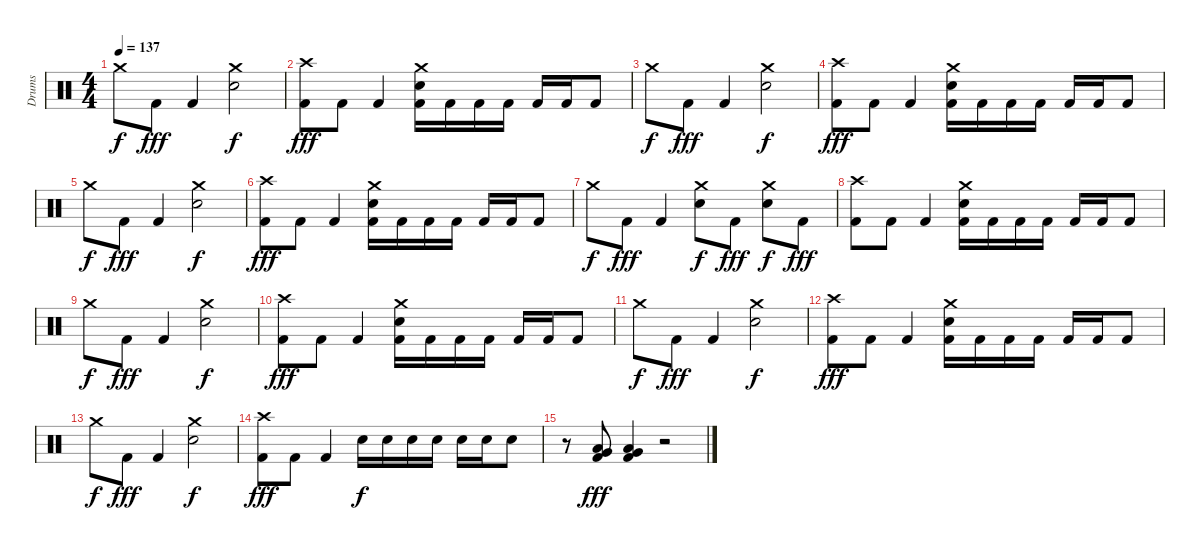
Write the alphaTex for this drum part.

\track ("Drums" "Drums") {instrument percussion}
\staff {score}
\articulation defaults
\ts (4 4)
\tempo 137
\clef neutral
\ks c "Crash medium (hit)".8{dy f} "Kick (hit) 2".8{dy fff} "Kick (hit) 2".4
("Crash medium (hit)" "Snare (hit) 2").2{dy f} |
("Crash high (hit)" "Kick (hit) 2").8{dy fff} "Kick (hit) 2".8 "Kick (hit) 2".4 ("Crash medium (hit)" "Snare (hit) 2" "Kick (hit) 2").16 "Kick (hit) 2".16 "Kick (hit) 2".16 "Kick (hit) 2".16 "Kick (hit) 2".16 "Kick (hit) 2".16 "Kick (hit) 2".8 |
"Crash medium (hit)".8{dy f} "Kick (hit) 2".8{dy fff} "Kick (hit) 2".4 ("Crash medium (hit)" "Snare (hit) 2").2{dy f} |
("Crash high (hit)" "Kick (hit) 2").8{dy fff} "Kick (hit) 2".8 "Kick (hit) 2".4 ("Crash medium (hit)" "Snare (hit) 2" "Kick (hit) 2").16 "Kick (hit) 2".16 "Kick (hit) 2".16 "Kick (hit) 2".16 "Kick (hit) 2".16 "Kick (hit) 2".16 "Kick (hit) 2".8 |
"Crash medium (hit)".8{dy f} "Kick (hit) 2".8{dy fff} "Kick (hit) 2".4 ("Crash medium (hit)" "Snare (hit) 2").2{dy f} |
("Crash high (hit)" "Kick (hit) 2").8{dy fff} "Kick (hit) 2".8 "Kick (hit) 2".4 ("Crash medium (hit)" "Snare (hit) 2" "Kick (hit) 2").16 "Kick (hit) 2".16 "Kick (hit) 2".16 "Kick (hit) 2".16 "Kick (hit) 2".16 "Kick (hit) 2".16 "Kick (hit) 2".8 |
"Crash medium (hit)".8{dy f} "Kick (hit) 2".8{dy fff} "Kick (hit) 2".4 ("Crash medium (hit)" "Snare (hit) 2").8{dy f} "Kick (hit) 2".8{dy fff} ("Crash medium (hit)" "Snare (hit) 2").8{dy f} "Kick (hit) 2".8{dy fff} |
("Crash high (hit)" "Kick (hit) 2").8 "Kick (hit) 2".8 "Kick (hit) 2".4 ("Crash medium (hit)" "Snare (hit) 2" "Kick (hit) 2").16 "Kick (hit) 2".16 "Kick (hit) 2".16 "Kick (hit) 2".16 "Kick (hit) 2".16 "Kick (hit) 2".16 "Kick (hit) 2".8 |
"Crash medium (hit)".8{dy f} "Kick (hit) 2".8{dy fff} "Kick (hit) 2".4 ("Crash medium (hit)" "Snare (hit) 2").2{dy f} |
("Crash high (hit)" "Kick (hit) 2").8{dy fff} "Kick (hit) 2".8 "Kick (hit) 2".4 ("Crash medium (hit)" "Snare (hit) 2" "Kick (hit) 2").16 "Kick (hit) 2".16 "Kick (hit) 2".16 "Kick (hit) 2".16 "Kick (hit) 2".16 "Kick (hit) 2".16 "Kick (hit) 2".8 |
"Crash medium (hit)".8{dy f} "Kick (hit) 2".8{dy fff} "Kick (hit) 2".4 ("Crash medium (hit)" "Snare (hit) 2").2{dy f} |
("Crash high (hit)" "Kick (hit) 2").8{dy fff} "Kick (hit) 2".8 "Kick (hit) 2".4 ("Crash medium (hit)" "Snare (hit) 2" "Kick (hit) 2").16 "Kick (hit) 2".16 "Kick (hit) 2".16 "Kick (hit) 2".16 "Kick (hit) 2".16 "Kick (hit) 2".16 "Kick (hit) 2".8 |
"Crash medium (hit)".8{dy f} "Kick (hit) 2".8{dy fff} "Kick (hit) 2".4 ("Crash medium (hit)" "Snare (hit) 2").2{dy f} |
("Crash high (hit)" "Kick (hit) 2").8{dy fff} "Kick (hit) 2".8 "Kick (hit) 2".4 "Snare (hit) 2".16{dy f} "Snare (hit) 2".16 "Snare (hit) 2".16 "Snare (hit) 2".16 "Snare (hit) 2".16 "Snare (hit) 2".16 "Snare (hit) 2".8 |
r.8 ("Very Low Tom (hit)" "Low Floor Tom (hit)" "Kick (hit) 2").8{dy fff} ("Very Low Tom (hit)" "Low Floor Tom (hit)" "Kick (hit) 2").4 r.2
